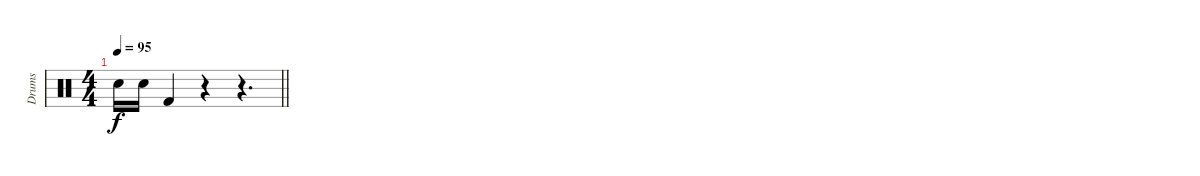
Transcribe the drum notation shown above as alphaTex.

\track ("Drums" "Drums") {instrument percussion}
\staff {score}
\articulation defaults
\ts (4 4)
\tempo 95
\clef neutral
\barLineRight lightlight
\ks c "Snare (hit) 2".16{dy f} "Snare (hit) 2".16 "Kick (hit) 2".4
r.4 r.4{d}
